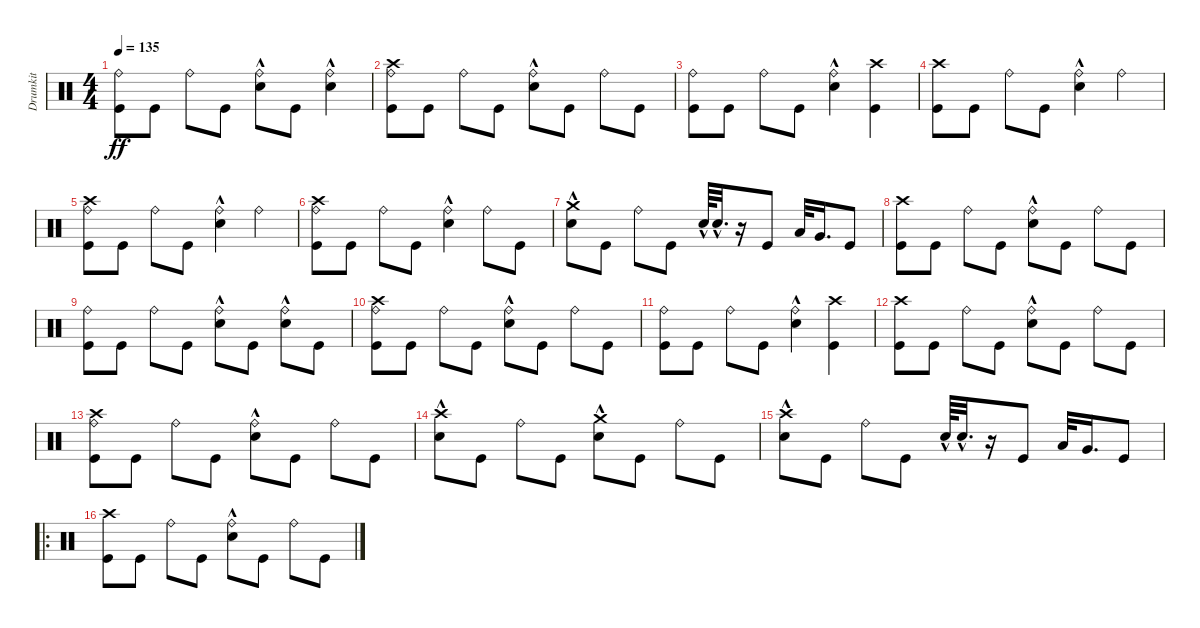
\track ("Drumkit" "Drumkit") {instrument percussion}
\staff {score}
\articulation defaults
\ts (4 4)
\tempo 135
\clef neutral
\ks c
("Ride (bell)" "Kick (hit)").8{dy ff} "Kick (hit)".8 "Ride (bell)".8 "Kick (hit)".8 ("Snare (hit) 2"{hac} "Ride (bell)").8 "Kick (hit)".8 ("Snare (hit) 2"{hac} "Ride (bell)").4 |
("Kick (hit)" "Crash high (hit)" "Ride (bell)").8 "Kick (hit)".8 "Ride (bell)".8 "Kick (hit)".8 ("Ride (bell)" "Snare (hit) 2"{hac}).8 "Kick (hit)".8 "Ride (bell)".8 "Kick (hit)".8 |
("Ride (bell)" "Kick (hit)").8 "Kick (hit)".8 "Ride (bell)".8 "Kick (hit)".8 ("Ride (bell)" "Snare (hit) 2"{hac}).4 ("Kick (hit)" "Crash high (hit)").4 |
("Kick (hit)" "Crash high (hit)").8 "Kick (hit)".8 "Ride (bell)".8 "Kick (hit)".8 ("Ride (bell)" "Snare (hit) 2"{hac}).4 "Ride (bell)".4 |
("Kick (hit)" "Crash high (hit)" "Ride (bell)").8 "Kick (hit)".8 "Ride (bell)".8 "Kick (hit)".8 ("Ride (bell)" "Snare (hit) 2"{hac}).4 "Ride (bell)".4 |
("Kick (hit)" "Crash high (hit)" "Ride (bell)").8 "Kick (hit)".8 "Ride (bell)".8 "Kick (hit)".8 ("Ride (bell)" "Snare (hit) 2"{hac}).4 "Ride (bell)".8 "Kick (hit)".8 |
("Snare (hit) 2"{hac} "Crash medium (hit)").8 "Kick (hit)".8 "Ride (bell)".8 "Kick (hit)".8 "Snare (hit) 2"{hac}.64 "Snare (hit) 2"{hac}.32{d} r.16 "Kick (hit)".8 "Low Tom (hit)".32 "Very Low Tom (hit)".16{d} "Kick (hit)".8 |
("Kick (hit)" "Crash high (hit)").8 "Kick (hit)".8 "Ride (bell)".8 "Kick (hit)".8 ("Ride (bell)" "Snare (hit) 2"{hac}).8 "Kick (hit)".8 "Ride (bell)".8 "Kick (hit)".8 |
("Ride (bell)" "Kick (hit)").8 "Kick (hit)".8 "Ride (bell)".8 "Kick (hit)".8 ("Snare (hit) 2"{hac} "Ride (bell)").8 "Kick (hit)".8 ("Snare (hit) 2"{hac} "Ride (bell)").8 "Kick (hit)".8 |
("Kick (hit)" "Crash high (hit)" "Ride (bell)").8 "Kick (hit)".8 "Ride (bell)".8 "Kick (hit)".8 ("Ride (bell)" "Snare (hit) 2"{hac}).8 "Kick (hit)".8 "Ride (bell)".8 "Kick (hit)".8 |
("Ride (bell)" "Kick (hit)").8 "Kick (hit)".8 "Ride (bell)".8 "Kick (hit)".8 ("Ride (bell)" "Snare (hit) 2"{hac}).4 ("Kick (hit)" "Crash high (hit)").4 |
("Kick (hit)" "Crash high (hit)").8 "Kick (hit)".8 "Ride (bell)".8 "Kick (hit)".8 ("Ride (bell)" "Snare (hit) 2"{hac}).8 "Kick (hit)".8 "Ride (bell)".8 "Kick (hit)".8 |
("Kick (hit)" "Crash high (hit)" "Ride (bell)").8 "Kick (hit)".8 "Ride (bell)".8 "Kick (hit)".8 ("Ride (bell)" "Snare (hit) 2"{hac}).8 "Kick (hit)".8 "Ride (bell)".8 "Kick (hit)".8 |
("Crash high (hit)" "Snare (hit) 2"{hac}).8 "Kick (hit)".8 "Ride (bell)".8 "Kick (hit)".8 ("Snare (hit) 2"{hac} "Crash medium (hit)").8 "Kick (hit)".8 "Ride (bell)".8 "Kick (hit)".8 |
("Snare (hit) 2"{hac} "Crash high (hit)").8 "Kick (hit)".8 "Ride (bell)".8 "Kick (hit)".8 "Snare (hit) 2"{hac}.64 "Snare (hit) 2"{hac}.32{d} r.16 "Kick (hit)".8 "Low Tom (hit)".32 "Very Low Tom (hit)".16{d} "Kick (hit)".8 |
\ro
("Kick (hit)" "Crash high (hit)").8 "Kick (hit)".8 "Ride (bell)".8 "Kick (hit)".8 ("Ride (bell)" "Snare (hit) 2"{hac}).8 "Kick (hit)".8 "Ride (bell)".8 "Kick (hit)".8
